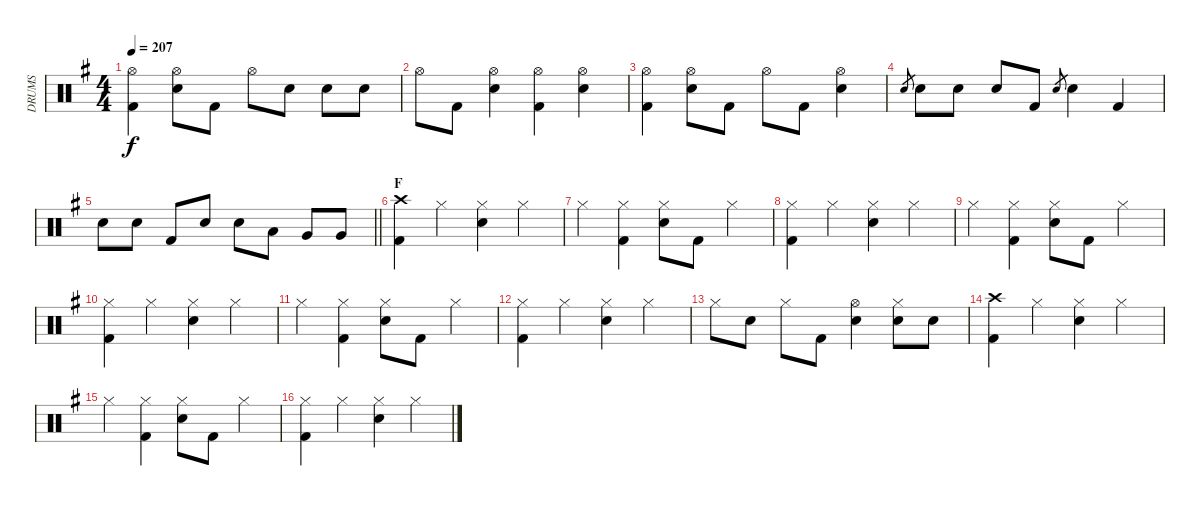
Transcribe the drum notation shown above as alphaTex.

\track ("DRUMS" "DRUMS") {instrument percussion}
\staff {score}
\articulation defaults
\ts (4 4)
\tempo 207
\clef neutral
\ks eminor
("Hi-Hat (open)" "Kick (hit) 2").4{dy f} ("Hi-Hat (open)" "Snare (hit) 2").8 "Kick (hit) 2".8 "Hi-Hat (open)".8 "Snare (hit) 2".8 "Snare (hit) 2".8 "Snare (hit) 2".8 |
"Hi-Hat (open)".8 "Kick (hit) 2".8 ("Hi-Hat (open)" "Snare (hit) 2").4 ("Hi-Hat (open)" "Kick (hit) 2").4 ("Hi-Hat (open)" "Snare (hit) 2").4 |
("Hi-Hat (open)" "Kick (hit) 2").4 ("Hi-Hat (open)" "Snare (hit) 2").8 "Kick (hit) 2".8 "Hi-Hat (open)".8 "Kick (hit) 2".8 ("Hi-Hat (open)" "Snare (hit) 2").4 |
"Snare (hit) 2".8{gr} "Snare (hit) 2".8 "Snare (hit) 2".8 "Snare (hit) 2".8 "Kick (hit) 2".8 "Snare (hit) 2".8{gr} "Snare (hit) 2".4 "Kick (hit) 2".4 |
\barLineRight lightlight "Snare (hit) 2".8 "Snare (hit) 2".8 "Kick (hit) 2".8 "Snare (hit) 2".8 "Snare (hit) 2".8 "Low Tom (hit)".8 "Very Low Tom (hit)".8 "Very Low Tom (hit)".8
|
\section ("" "F")
("Crash high (hit)" "Kick (hit) 2").4 "Hi-Hat (closed)".4 ("Hi-Hat (closed)" "Snare (hit) 2").4 "Hi-Hat (closed)".4 |
"Hi-Hat (closed)".4 ("Hi-Hat (closed)" "Kick (hit) 2").4 ("Hi-Hat (closed)" "Snare (hit) 2").8 "Kick (hit) 2".8 "Hi-Hat (closed)".4 |
("Hi-Hat (closed)" "Kick (hit) 2").4 "Hi-Hat (closed)".4 ("Hi-Hat (closed)" "Snare (hit) 2").4 "Hi-Hat (closed)".4 |
"Hi-Hat (closed)".4 ("Hi-Hat (closed)" "Kick (hit) 2").4 ("Hi-Hat (closed)" "Snare (hit) 2").8 "Kick (hit) 2".8 "Hi-Hat (closed)".4 |
("Hi-Hat (closed)" "Kick (hit) 2").4 "Hi-Hat (closed)".4 ("Hi-Hat (closed)" "Snare (hit) 2").4 "Hi-Hat (closed)".4 |
"Hi-Hat (closed)".4 ("Hi-Hat (closed)" "Kick (hit) 2").4 ("Hi-Hat (closed)" "Snare (hit) 2").8 "Kick (hit) 2".8 "Hi-Hat (closed)".4 |
("Hi-Hat (closed)" "Kick (hit) 2").4 "Hi-Hat (closed)".4 ("Hi-Hat (closed)" "Snare (hit) 2").4 "Hi-Hat (closed)".4 |
"Hi-Hat (closed)".8 "Snare (hit) 2".8 "Hi-Hat (closed)".8 "Kick (hit) 2".8 ("Hi-Hat (open)" "Snare (hit) 2").4 ("Hi-Hat (closed)" "Snare (hit) 2").8 "Snare (hit) 2".8 |
("Crash high (hit)" "Kick (hit) 2").4 "Hi-Hat (closed)".4 ("Hi-Hat (closed)" "Snare (hit) 2").4 "Hi-Hat (closed)".4 |
"Hi-Hat (closed)".4 ("Hi-Hat (closed)" "Kick (hit) 2").4 ("Hi-Hat (closed)" "Snare (hit) 2").8 "Kick (hit) 2".8 "Hi-Hat (closed)".4 |
("Hi-Hat (closed)" "Kick (hit) 2").4 "Hi-Hat (closed)".4 ("Hi-Hat (closed)" "Snare (hit) 2").4 "Hi-Hat (closed)".4
